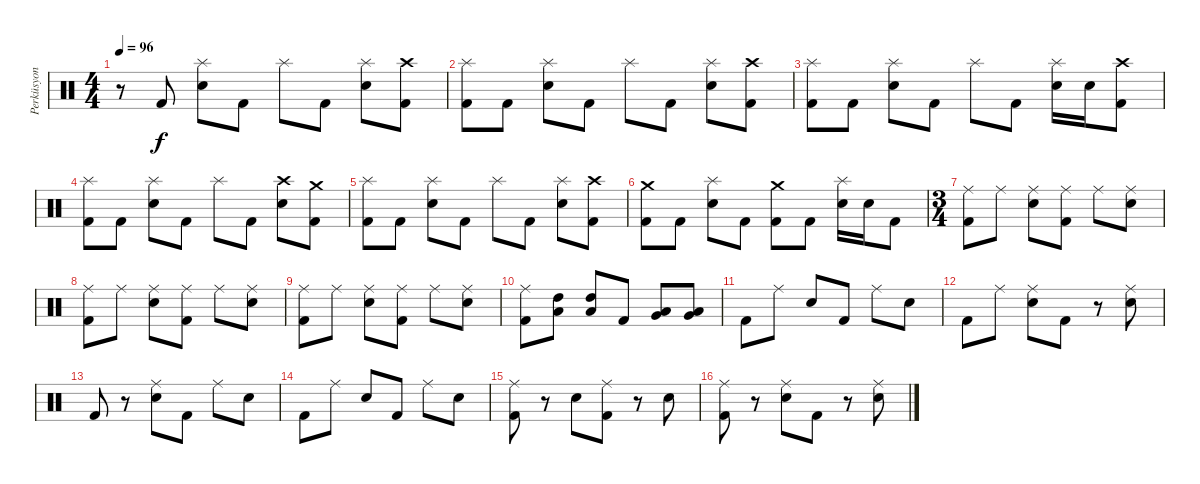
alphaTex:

\track ("Perküsyon" "Perküsyon") {instrument percussion}
\staff {score}
\articulation defaults
\ts (4 4)
\tempo 96
\clef neutral
\ks c
r.8{dy f} "Kick (hit) 2".8 ("Snare (hit) 2" "Splash (hit)").8 "Kick (hit) 2".8 "Splash (hit)".8 "Kick (hit) 2".8 ("Snare (hit) 2" "Splash (hit)").8 ("Kick (hit) 2" "Crash high (hit)").8 |
("Kick (hit) 2" "Splash (hit)").8 "Kick (hit) 2".8 ("Snare (hit) 2" "Splash (hit)").8 "Kick (hit) 2".8 "Splash (hit)".8 "Kick (hit) 2".8 ("Snare (hit) 2" "Splash (hit)").8 ("Kick (hit) 2" "Crash high (hit)").8 |
("Kick (hit) 2" "Splash (hit)").8 "Kick (hit) 2".8 ("Snare (hit) 2" "Splash (hit)").8 "Kick (hit) 2".8 "Splash (hit)".8 "Kick (hit) 2".8 ("Snare (hit) 2" "Splash (hit)").16 "Snare (hit) 2".16 ("Kick (hit) 2" "Crash high (hit)").8 |
("Kick (hit) 2" "Splash (hit)").8 "Kick (hit) 2".8 ("Snare (hit) 2" "Splash (hit)").8 "Kick (hit) 2".8 "Splash (hit)".8 "Kick (hit) 2".8 ("Snare (hit) 2" "Crash high (hit)").8 ("Kick (hit) 2" "Crash medium (hit)").8 |
("Kick (hit) 2" "Splash (hit)").8 "Kick (hit) 2".8 ("Snare (hit) 2" "Splash (hit)").8 "Kick (hit) 2".8 "Splash (hit)".8 "Kick (hit) 2".8 ("Snare (hit) 2" "Splash (hit)").8 ("Kick (hit) 2" "Crash high (hit)").8 |
("Kick (hit) 2" "Crash medium (hit)").8 "Kick (hit) 2".8 ("Snare (hit) 2" "Splash (hit)").8 "Kick (hit) 2".8 ("Kick (hit) 2" "Crash medium (hit)").8 "Kick (hit) 2".8 ("Snare (hit) 2" "Splash (hit)").16 "Snare (hit) 2".16 "Kick (hit) 2".8 |
\ts (3 4)
("Kick (hit) 2" "Ride (middle)").8 "Ride (middle)".8 ("Snare (hit) 2" "Ride (middle)").8 ("Kick (hit) 2" "Ride (middle)").8 "Ride (middle)".8 ("Snare (hit) 2" "Ride (middle)").8 |
("Kick (hit) 2" "Ride (middle)").8 "Ride (middle)".8 ("Snare (hit) 2" "Ride (middle)").8 ("Kick (hit) 2" "Ride (middle)").8 "Ride (middle)".8 ("Snare (hit) 2" "Ride (middle)").8 |
("Kick (hit) 2" "Ride (middle)").8 "Ride (middle)".8 ("Snare (hit) 2" "Ride (middle)").8 ("Kick (hit) 2" "Ride (middle)").8 "Ride (middle)".8 ("Snare (hit) 2" "Ride (middle)").8 |
("Kick (hit) 2" "Ride (middle)").8 ("High Tom (hit)" "Low Tom (hit)").8 ("High Tom (hit)" "Low Tom (hit)").8 "Kick (hit) 2".8 ("Low Tom (hit)" "Very Low Tom (hit)").8 ("Low Tom (hit)" "Very Low Tom (hit)").8 |
"Kick (hit) 2".8 "Ride (middle)".8 "Snare (hit) 2".8 "Kick (hit) 2".8 "Ride (middle)".8 "Snare (hit) 2".8 |
"Kick (hit) 2".8 "Ride (middle)".8 ("Snare (hit) 2" "Ride (middle)").8 "Kick (hit) 2".8 r.8 ("Snare (hit) 2" "Ride (middle)").8 |
"Kick (hit) 2".8 r.8 ("Snare (hit) 2" "Ride (middle)").8 "Kick (hit) 2".8 "Ride (middle)".8 "Snare (hit) 2".8 |
"Kick (hit) 2".8 "Ride (middle)".8 "Snare (hit) 2".8 "Kick (hit) 2".8 "Ride (middle)".8 "Snare (hit) 2".8 |
("Kick (hit) 2" "Ride (middle)").8 r.8 "Snare (hit) 2".8 ("Kick (hit) 2" "Ride (middle)").8 r.8 "Snare (hit) 2".8 |
("Kick (hit) 2" "Ride (middle)").8 r.8 ("Snare (hit) 2" "Ride (middle)").8 "Kick (hit) 2".8 r.8 ("Snare (hit) 2" "Ride (middle)").8
